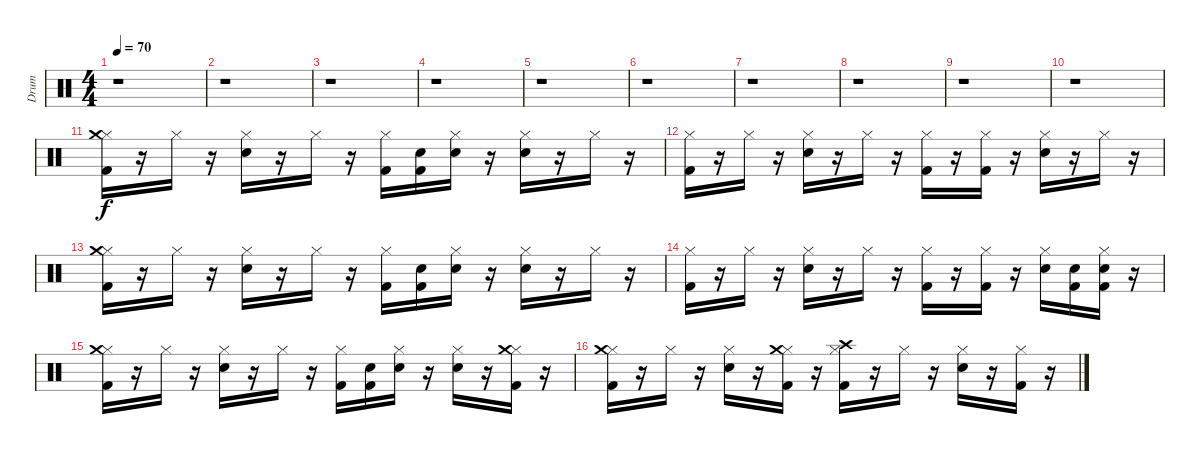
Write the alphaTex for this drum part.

\track ("Drum" "Drum") {instrument percussion}
\staff {score}
\articulation defaults
\ts (4 4)
\tempo 70
\clef neutral
\ks c
r.1{dy f} |
r.1 |
r.1 |
r.1 |
r.1 |
r.1 |
r.1 |
r.1 |
r.1 |
r.1 |
("Kick (hit) 2" "Hi-Hat (closed)" "Crash medium (hit)").16 r.16 "Hi-Hat (closed)".16 r.16 ("Hi-Hat (closed)" "Snare (hit) 2").16 r.16 "Hi-Hat (closed)".16 r.16 ("Kick (hit) 2" "Hi-Hat (closed)").16 ("Snare (hit)" "Kick (hit) 2").16 ("Snare (hit)" "Hi-Hat (closed)").16 r.16 ("Hi-Hat (closed)" "Snare (hit) 2").16 r.16 "Hi-Hat (closed)".16 r.16 |
("Kick (hit) 2" "Hi-Hat (closed)").16 r.16 "Hi-Hat (closed)".16 r.16 ("Hi-Hat (closed)" "Snare (hit) 2").16 r.16 "Hi-Hat (closed)".16 r.16 ("Kick (hit) 2" "Hi-Hat (closed)").16 r.16 ("Kick (hit) 2" "Hi-Hat (closed)").16 r.16 ("Hi-Hat (closed)" "Snare (hit) 2").16 r.16 "Hi-Hat (closed)".16 r.16 |
("Kick (hit) 2" "Hi-Hat (closed)" "Crash medium (hit)").16 r.16 "Hi-Hat (closed)".16 r.16 ("Hi-Hat (closed)" "Snare (hit) 2").16 r.16 "Hi-Hat (closed)".16 r.16 ("Kick (hit) 2" "Hi-Hat (closed)").16 ("Snare (hit)" "Kick (hit) 2").16 ("Snare (hit)" "Hi-Hat (closed)").16 r.16 ("Hi-Hat (closed)" "Snare (hit) 2").16 r.16 "Hi-Hat (closed)".16 r.16 |
("Kick (hit) 2" "Hi-Hat (closed)").16 r.16 "Hi-Hat (closed)".16 r.16 ("Hi-Hat (closed)" "Snare (hit) 2").16 r.16 "Hi-Hat (closed)".16 r.16 ("Kick (hit) 2" "Hi-Hat (closed)").16 r.16 ("Kick (hit) 2" "Hi-Hat (closed)").16 r.16 ("Hi-Hat (closed)" "Snare (hit) 2").16 ("Snare (hit)" "Kick (hit) 2").16 ("Snare (hit)" "Kick (hit) 2" "Hi-Hat (closed)").16 r.16 |
("Kick (hit) 2" "Hi-Hat (closed)" "Crash medium (hit)").16 r.16 "Hi-Hat (closed)".16 r.16 ("Hi-Hat (closed)" "Snare (hit) 2").16 r.16 "Hi-Hat (closed)".16 r.16 ("Kick (hit) 2" "Hi-Hat (closed)").16 ("Snare (hit)" "Kick (hit) 2").16 ("Snare (hit)" "Hi-Hat (closed)").16 r.16 ("Hi-Hat (closed)" "Snare (hit) 2").16 r.16 ("Kick (hit) 2" "Hi-Hat (closed)" "Crash medium (hit)").16 r.16 |
("Kick (hit) 2" "Hi-Hat (closed)" "Crash medium (hit)").16 r.16 "Hi-Hat (closed)".16 r.16 ("Hi-Hat (closed)" "Snare (hit) 2").16 r.16 ("Kick (hit) 2" "Hi-Hat (closed)" "Crash medium (hit)").16 r.16 ("Kick (hit) 2" "Hi-Hat (closed)" "Crash high (hit)").16 r.16 "Hi-Hat (closed)".16 r.16 ("Hi-Hat (closed)" "Snare (hit) 2").16 r.16 ("Kick (hit) 2" "Hi-Hat (closed)").16 r.16
